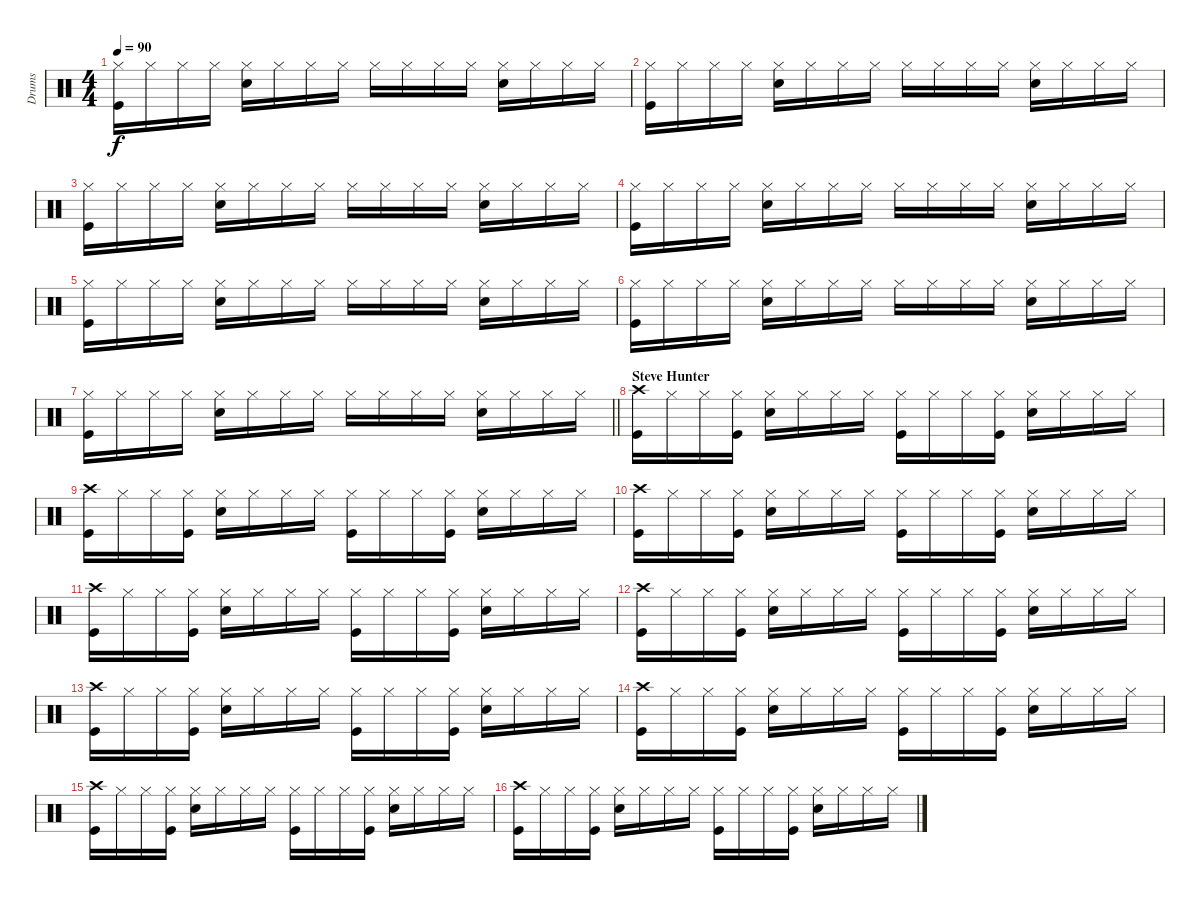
\track ("Drums" "Drums") {instrument percussion}
\staff {score}
\articulation defaults
\ts (4 4)
\tempo 90
\clef neutral
\ks c
("Hi-Hat (closed)" "Kick (hit)").16{dy f} "Hi-Hat (closed)".16 "Hi-Hat (closed)".16 "Hi-Hat (closed)".16 ("Hi-Hat (closed)" "Snare (hit) 2").16 "Hi-Hat (closed)".16 "Hi-Hat (closed)".16 "Hi-Hat (closed)".16 "Hi-Hat (closed)".16 "Hi-Hat (closed)".16 "Hi-Hat (closed)".16 "Hi-Hat (closed)".16 ("Hi-Hat (closed)" "Snare (hit) 2").16 "Hi-Hat (closed)".16 "Hi-Hat (closed)".16 "Hi-Hat (closed)".16 |
("Hi-Hat (closed)" "Kick (hit)").16 "Hi-Hat (closed)".16 "Hi-Hat (closed)".16 "Hi-Hat (closed)".16 ("Hi-Hat (closed)" "Snare (hit) 2").16 "Hi-Hat (closed)".16 "Hi-Hat (closed)".16 "Hi-Hat (closed)".16 "Hi-Hat (closed)".16 "Hi-Hat (closed)".16 "Hi-Hat (closed)".16 "Hi-Hat (closed)".16 ("Hi-Hat (closed)" "Snare (hit) 2").16 "Hi-Hat (closed)".16 "Hi-Hat (closed)".16 "Hi-Hat (closed)".16 |
("Hi-Hat (closed)" "Kick (hit)").16 "Hi-Hat (closed)".16 "Hi-Hat (closed)".16 "Hi-Hat (closed)".16 ("Hi-Hat (closed)" "Snare (hit) 2").16 "Hi-Hat (closed)".16 "Hi-Hat (closed)".16 "Hi-Hat (closed)".16 "Hi-Hat (closed)".16 "Hi-Hat (closed)".16 "Hi-Hat (closed)".16 "Hi-Hat (closed)".16 ("Hi-Hat (closed)" "Snare (hit) 2").16 "Hi-Hat (closed)".16 "Hi-Hat (closed)".16 "Hi-Hat (closed)".16 |
("Hi-Hat (closed)" "Kick (hit)").16 "Hi-Hat (closed)".16 "Hi-Hat (closed)".16 "Hi-Hat (closed)".16 ("Hi-Hat (closed)" "Snare (hit) 2").16 "Hi-Hat (closed)".16 "Hi-Hat (closed)".16 "Hi-Hat (closed)".16 "Hi-Hat (closed)".16 "Hi-Hat (closed)".16 "Hi-Hat (closed)".16 "Hi-Hat (closed)".16 ("Hi-Hat (closed)" "Snare (hit) 2").16 "Hi-Hat (closed)".16 "Hi-Hat (closed)".16 "Hi-Hat (closed)".16 |
("Hi-Hat (closed)" "Kick (hit)").16 "Hi-Hat (closed)".16 "Hi-Hat (closed)".16 "Hi-Hat (closed)".16 ("Hi-Hat (closed)" "Snare (hit) 2").16 "Hi-Hat (closed)".16 "Hi-Hat (closed)".16 "Hi-Hat (closed)".16 "Hi-Hat (closed)".16 "Hi-Hat (closed)".16 "Hi-Hat (closed)".16 "Hi-Hat (closed)".16 ("Hi-Hat (closed)" "Snare (hit) 2").16 "Hi-Hat (closed)".16 "Hi-Hat (closed)".16 "Hi-Hat (closed)".16 |
("Hi-Hat (closed)" "Kick (hit)").16 "Hi-Hat (closed)".16 "Hi-Hat (closed)".16 "Hi-Hat (closed)".16 ("Hi-Hat (closed)" "Snare (hit) 2").16 "Hi-Hat (closed)".16 "Hi-Hat (closed)".16 "Hi-Hat (closed)".16 "Hi-Hat (closed)".16 "Hi-Hat (closed)".16 "Hi-Hat (closed)".16 "Hi-Hat (closed)".16 ("Hi-Hat (closed)" "Snare (hit) 2").16 "Hi-Hat (closed)".16 "Hi-Hat (closed)".16 "Hi-Hat (closed)".16 |
\barLineRight lightlight
("Hi-Hat (closed)" "Kick (hit)").16 "Hi-Hat (closed)".16 "Hi-Hat (closed)".16 "Hi-Hat (closed)".16 ("Hi-Hat (closed)" "Snare (hit) 2").16 "Hi-Hat (closed)".16 "Hi-Hat (closed)".16 "Hi-Hat (closed)".16 "Hi-Hat (closed)".16 "Hi-Hat (closed)".16 "Hi-Hat (closed)".16 "Hi-Hat (closed)".16 ("Hi-Hat (closed)" "Snare (hit) 2").16 "Hi-Hat (closed)".16 "Hi-Hat (closed)".16 "Hi-Hat (closed)".16 |
\section ("" "Steve Hunter")
("Crash high (hit)" "Kick (hit)").16 "Hi-Hat (closed)".16 "Hi-Hat (closed)".16 ("Hi-Hat (closed)" "Kick (hit)").16 ("Hi-Hat (closed)" "Snare (hit) 2").16 "Hi-Hat (closed)".16 "Hi-Hat (closed)".16 "Hi-Hat (closed)".16 ("Hi-Hat (closed)" "Kick (hit)").16 "Hi-Hat (closed)".16 "Hi-Hat (closed)".16 ("Hi-Hat (closed)" "Kick (hit)").16 ("Hi-Hat (closed)" "Snare (hit) 2").16 "Hi-Hat (closed)".16 "Hi-Hat (closed)".16 "Hi-Hat (closed)".16 |
("Crash high (hit)" "Kick (hit)").16 "Hi-Hat (closed)".16 "Hi-Hat (closed)".16 ("Hi-Hat (closed)" "Kick (hit)").16 ("Hi-Hat (closed)" "Snare (hit) 2").16 "Hi-Hat (closed)".16 "Hi-Hat (closed)".16 "Hi-Hat (closed)".16 ("Hi-Hat (closed)" "Kick (hit)").16 "Hi-Hat (closed)".16 "Hi-Hat (closed)".16 ("Hi-Hat (closed)" "Kick (hit)").16 ("Hi-Hat (closed)" "Snare (hit) 2").16 "Hi-Hat (closed)".16 "Hi-Hat (closed)".16 "Hi-Hat (closed)".16 |
("Crash high (hit)" "Kick (hit)").16 "Hi-Hat (closed)".16 "Hi-Hat (closed)".16 ("Hi-Hat (closed)" "Kick (hit)").16 ("Hi-Hat (closed)" "Snare (hit) 2").16 "Hi-Hat (closed)".16 "Hi-Hat (closed)".16 "Hi-Hat (closed)".16 ("Hi-Hat (closed)" "Kick (hit)").16 "Hi-Hat (closed)".16 "Hi-Hat (closed)".16 ("Hi-Hat (closed)" "Kick (hit)").16 ("Hi-Hat (closed)" "Snare (hit) 2").16 "Hi-Hat (closed)".16 "Hi-Hat (closed)".16 "Hi-Hat (closed)".16 |
("Crash high (hit)" "Kick (hit)").16 "Hi-Hat (closed)".16 "Hi-Hat (closed)".16 ("Hi-Hat (closed)" "Kick (hit)").16 ("Hi-Hat (closed)" "Snare (hit) 2").16 "Hi-Hat (closed)".16 "Hi-Hat (closed)".16 "Hi-Hat (closed)".16 ("Hi-Hat (closed)" "Kick (hit)").16 "Hi-Hat (closed)".16 "Hi-Hat (closed)".16 ("Hi-Hat (closed)" "Kick (hit)").16 ("Hi-Hat (closed)" "Snare (hit) 2").16 "Hi-Hat (closed)".16 "Hi-Hat (closed)".16 "Hi-Hat (closed)".16 |
("Crash high (hit)" "Kick (hit)").16 "Hi-Hat (closed)".16 "Hi-Hat (closed)".16 ("Hi-Hat (closed)" "Kick (hit)").16 ("Hi-Hat (closed)" "Snare (hit) 2").16 "Hi-Hat (closed)".16 "Hi-Hat (closed)".16 "Hi-Hat (closed)".16 ("Hi-Hat (closed)" "Kick (hit)").16 "Hi-Hat (closed)".16 "Hi-Hat (closed)".16 ("Hi-Hat (closed)" "Kick (hit)").16 ("Hi-Hat (closed)" "Snare (hit) 2").16 "Hi-Hat (closed)".16 "Hi-Hat (closed)".16 "Hi-Hat (closed)".16 |
("Crash high (hit)" "Kick (hit)").16 "Hi-Hat (closed)".16 "Hi-Hat (closed)".16 ("Hi-Hat (closed)" "Kick (hit)").16 ("Hi-Hat (closed)" "Snare (hit) 2").16 "Hi-Hat (closed)".16 "Hi-Hat (closed)".16 "Hi-Hat (closed)".16 ("Hi-Hat (closed)" "Kick (hit)").16 "Hi-Hat (closed)".16 "Hi-Hat (closed)".16 ("Hi-Hat (closed)" "Kick (hit)").16 ("Hi-Hat (closed)" "Snare (hit) 2").16 "Hi-Hat (closed)".16 "Hi-Hat (closed)".16 "Hi-Hat (closed)".16 |
("Crash high (hit)" "Kick (hit)").16 "Hi-Hat (closed)".16 "Hi-Hat (closed)".16 ("Hi-Hat (closed)" "Kick (hit)").16 ("Hi-Hat (closed)" "Snare (hit) 2").16 "Hi-Hat (closed)".16 "Hi-Hat (closed)".16 "Hi-Hat (closed)".16 ("Hi-Hat (closed)" "Kick (hit)").16 "Hi-Hat (closed)".16 "Hi-Hat (closed)".16 ("Hi-Hat (closed)" "Kick (hit)").16 ("Hi-Hat (closed)" "Snare (hit) 2").16 "Hi-Hat (closed)".16 "Hi-Hat (closed)".16 "Hi-Hat (closed)".16 |
("Crash high (hit)" "Kick (hit)").16 "Hi-Hat (closed)".16 "Hi-Hat (closed)".16 ("Hi-Hat (closed)" "Kick (hit)").16 ("Hi-Hat (closed)" "Snare (hit) 2").16 "Hi-Hat (closed)".16 "Hi-Hat (closed)".16 "Hi-Hat (closed)".16 ("Hi-Hat (closed)" "Kick (hit)").16 "Hi-Hat (closed)".16 "Hi-Hat (closed)".16 ("Hi-Hat (closed)" "Kick (hit)").16 ("Hi-Hat (closed)" "Snare (hit) 2").16 "Hi-Hat (closed)".16 "Hi-Hat (closed)".16 "Hi-Hat (closed)".16 |
("Crash high (hit)" "Kick (hit)").16 "Hi-Hat (closed)".16 "Hi-Hat (closed)".16 ("Hi-Hat (closed)" "Kick (hit)").16 ("Hi-Hat (closed)" "Snare (hit) 2").16 "Hi-Hat (closed)".16 "Hi-Hat (closed)".16 "Hi-Hat (closed)".16 ("Hi-Hat (closed)" "Kick (hit)").16 "Hi-Hat (closed)".16 "Hi-Hat (closed)".16 ("Hi-Hat (closed)" "Kick (hit)").16 ("Hi-Hat (closed)" "Snare (hit) 2").16 "Hi-Hat (closed)".16 "Hi-Hat (closed)".16 "Hi-Hat (closed)".16
